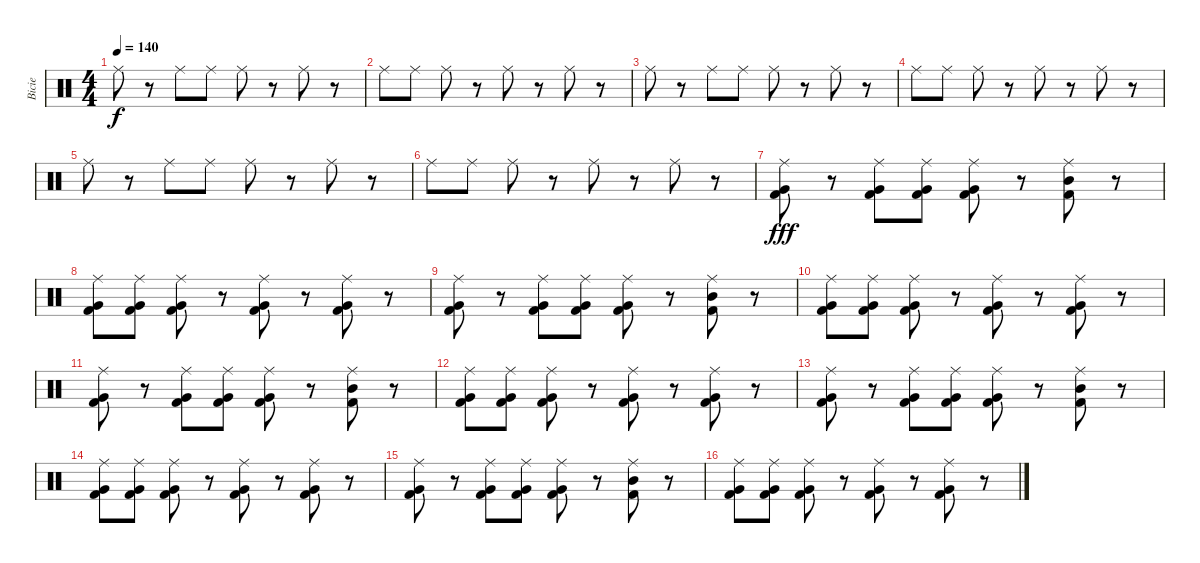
\track ("Bicie" "Bicie") {instrument percussion}
\staff {score}
\articulation defaults
\ts (4 4)
\tempo 140
\clef neutral
\ks c "Ride (middle)".8{dy f}
r.8 "Ride (middle)".8 "Ride (middle)".8 "Ride (middle)".8 r.8 "Ride (middle)".8 r.8 |
"Ride (middle)".8 "Ride (middle)".8 "Ride (middle)".8 r.8 "Ride (middle)".8 r.8 "Ride (middle)".8 r.8 |
"Ride (middle)".8 r.8 "Ride (middle)".8 "Ride (middle)".8 "Ride (middle)".8 r.8 "Ride (middle)".8 r.8 |
"Ride (middle)".8 "Ride (middle)".8 "Ride (middle)".8 r.8 "Ride (middle)".8 r.8 "Ride (middle)".8 r.8 |
"Ride (middle)".8 r.8 "Ride (middle)".8 "Ride (middle)".8 "Ride (middle)".8 r.8 "Ride (middle)".8 r.8 |
"Ride (middle)".8 "Ride (middle)".8 "Ride (middle)".8 r.8 "Ride (middle)".8 r.8 "Ride (middle)".8 r.8 |
("Very Low Tom (hit)" "Kick (hit) 2" "Ride (middle)").8{dy fff} r.8 ("Very Low Tom (hit)" "Kick (hit) 2" "Ride (middle)").8 ("Very Low Tom (hit)" "Kick (hit) 2" "Ride (middle)").8 ("Very Low Tom (hit)" "Kick (hit) 2" "Ride (middle)").8 r.8 ("Mid Tom (hit)" "Kick (hit) 2" "Ride (middle)").8 r.8 |
("Very Low Tom (hit)" "Kick (hit) 2" "Ride (middle)").8 ("Very Low Tom (hit)" "Kick (hit) 2" "Ride (middle)").8 ("Very Low Tom (hit)" "Kick (hit) 2" "Ride (middle)").8 r.8 ("Very Low Tom (hit)" "Kick (hit) 2" "Ride (middle)").8 r.8 ("Very Low Tom (hit)" "Kick (hit) 2" "Ride (middle)").8 r.8 |
("Very Low Tom (hit)" "Kick (hit) 2" "Ride (middle)").8 r.8 ("Very Low Tom (hit)" "Kick (hit) 2" "Ride (middle)").8 ("Very Low Tom (hit)" "Kick (hit) 2" "Ride (middle)").8 ("Very Low Tom (hit)" "Kick (hit) 2" "Ride (middle)").8 r.8 ("Mid Tom (hit)" "Kick (hit) 2" "Ride (middle)").8 r.8 |
("Very Low Tom (hit)" "Kick (hit) 2" "Ride (middle)").8 ("Very Low Tom (hit)" "Kick (hit) 2" "Ride (middle)").8 ("Very Low Tom (hit)" "Kick (hit) 2" "Ride (middle)").8 r.8 ("Very Low Tom (hit)" "Kick (hit) 2" "Ride (middle)").8 r.8 ("Very Low Tom (hit)" "Kick (hit) 2" "Ride (middle)").8 r.8 |
("Very Low Tom (hit)" "Kick (hit) 2" "Ride (middle)").8 r.8 ("Very Low Tom (hit)" "Kick (hit) 2" "Ride (middle)").8 ("Very Low Tom (hit)" "Kick (hit) 2" "Ride (middle)").8 ("Very Low Tom (hit)" "Kick (hit) 2" "Ride (middle)").8 r.8 ("Mid Tom (hit)" "Kick (hit) 2" "Ride (middle)").8 r.8 |
("Very Low Tom (hit)" "Kick (hit) 2" "Ride (middle)").8 ("Very Low Tom (hit)" "Kick (hit) 2" "Ride (middle)").8 ("Very Low Tom (hit)" "Kick (hit) 2" "Ride (middle)").8 r.8 ("Very Low Tom (hit)" "Kick (hit) 2" "Ride (middle)").8 r.8 ("Very Low Tom (hit)" "Kick (hit) 2" "Ride (middle)").8 r.8 |
("Very Low Tom (hit)" "Kick (hit) 2" "Ride (middle)").8 r.8 ("Very Low Tom (hit)" "Kick (hit) 2" "Ride (middle)").8 ("Very Low Tom (hit)" "Kick (hit) 2" "Ride (middle)").8 ("Very Low Tom (hit)" "Kick (hit) 2" "Ride (middle)").8 r.8 ("Mid Tom (hit)" "Kick (hit) 2" "Ride (middle)").8 r.8 |
("Very Low Tom (hit)" "Kick (hit) 2" "Ride (middle)").8 ("Very Low Tom (hit)" "Kick (hit) 2" "Ride (middle)").8 ("Very Low Tom (hit)" "Kick (hit) 2" "Ride (middle)").8 r.8 ("Very Low Tom (hit)" "Kick (hit) 2" "Ride (middle)").8 r.8 ("Very Low Tom (hit)" "Kick (hit) 2" "Ride (middle)").8 r.8 |
("Very Low Tom (hit)" "Kick (hit) 2" "Ride (middle)").8 r.8 ("Very Low Tom (hit)" "Kick (hit) 2" "Ride (middle)").8 ("Very Low Tom (hit)" "Kick (hit) 2" "Ride (middle)").8 ("Very Low Tom (hit)" "Kick (hit) 2" "Ride (middle)").8 r.8 ("Mid Tom (hit)" "Kick (hit) 2" "Ride (middle)").8 r.8 |
("Very Low Tom (hit)" "Kick (hit) 2" "Ride (middle)").8 ("Very Low Tom (hit)" "Kick (hit) 2" "Ride (middle)").8 ("Very Low Tom (hit)" "Kick (hit) 2" "Ride (middle)").8 r.8 ("Very Low Tom (hit)" "Kick (hit) 2" "Ride (middle)").8 r.8 ("Very Low Tom (hit)" "Kick (hit) 2" "Ride (middle)").8 r.8
